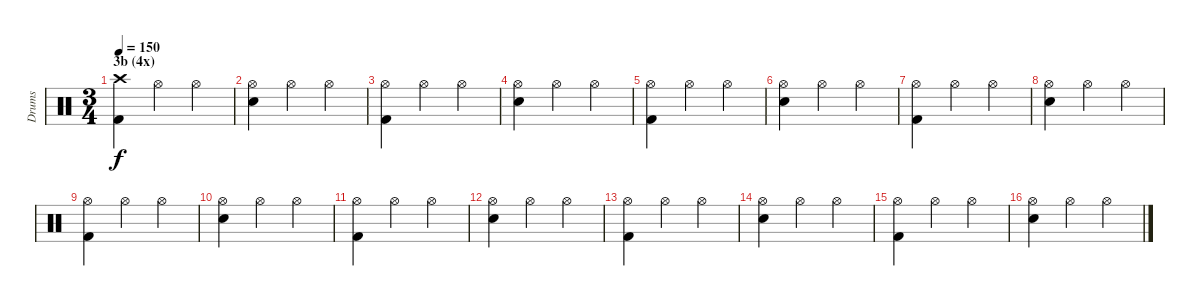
\track ("Drums" "Drums") {instrument percussion}
\staff {score}
\articulation defaults
\ts (3 4)
\section ("" "3b (4x)")
\tempo 150
\clef neutral
\ks c
("Crash high (hit)" "Kick (hit) 2").4{dy f} "Hi-Hat (open)".4 "Hi-Hat (open)".4 |
("Hi-Hat (open)" "Snare (hit) 2").4 "Hi-Hat (open)".4 "Hi-Hat (open)".4 |
("Hi-Hat (open)" "Kick (hit) 2").4 "Hi-Hat (open)".4 "Hi-Hat (open)".4 |
("Hi-Hat (open)" "Snare (hit) 2").4 "Hi-Hat (open)".4 "Hi-Hat (open)".4 |
("Hi-Hat (open)" "Kick (hit) 2").4 "Hi-Hat (open)".4 "Hi-Hat (open)".4 |
("Hi-Hat (open)" "Snare (hit) 2").4 "Hi-Hat (open)".4 "Hi-Hat (open)".4 |
("Hi-Hat (open)" "Kick (hit) 2").4 "Hi-Hat (open)".4 "Hi-Hat (open)".4 |
("Hi-Hat (open)" "Snare (hit) 2").4 "Hi-Hat (open)".4 "Hi-Hat (open)".4 |
("Hi-Hat (open)" "Kick (hit) 2").4 "Hi-Hat (open)".4 "Hi-Hat (open)".4 |
("Hi-Hat (open)" "Snare (hit) 2").4 "Hi-Hat (open)".4 "Hi-Hat (open)".4 |
("Hi-Hat (open)" "Kick (hit) 2").4 "Hi-Hat (open)".4 "Hi-Hat (open)".4 |
("Hi-Hat (open)" "Snare (hit) 2").4 "Hi-Hat (open)".4 "Hi-Hat (open)".4 |
("Hi-Hat (open)" "Kick (hit) 2").4 "Hi-Hat (open)".4 "Hi-Hat (open)".4 |
("Hi-Hat (open)" "Snare (hit) 2").4 "Hi-Hat (open)".4 "Hi-Hat (open)".4 |
("Hi-Hat (open)" "Kick (hit) 2").4 "Hi-Hat (open)".4 "Hi-Hat (open)".4 |
("Hi-Hat (open)" "Snare (hit) 2").4 "Hi-Hat (open)".4 "Hi-Hat (open)".4
